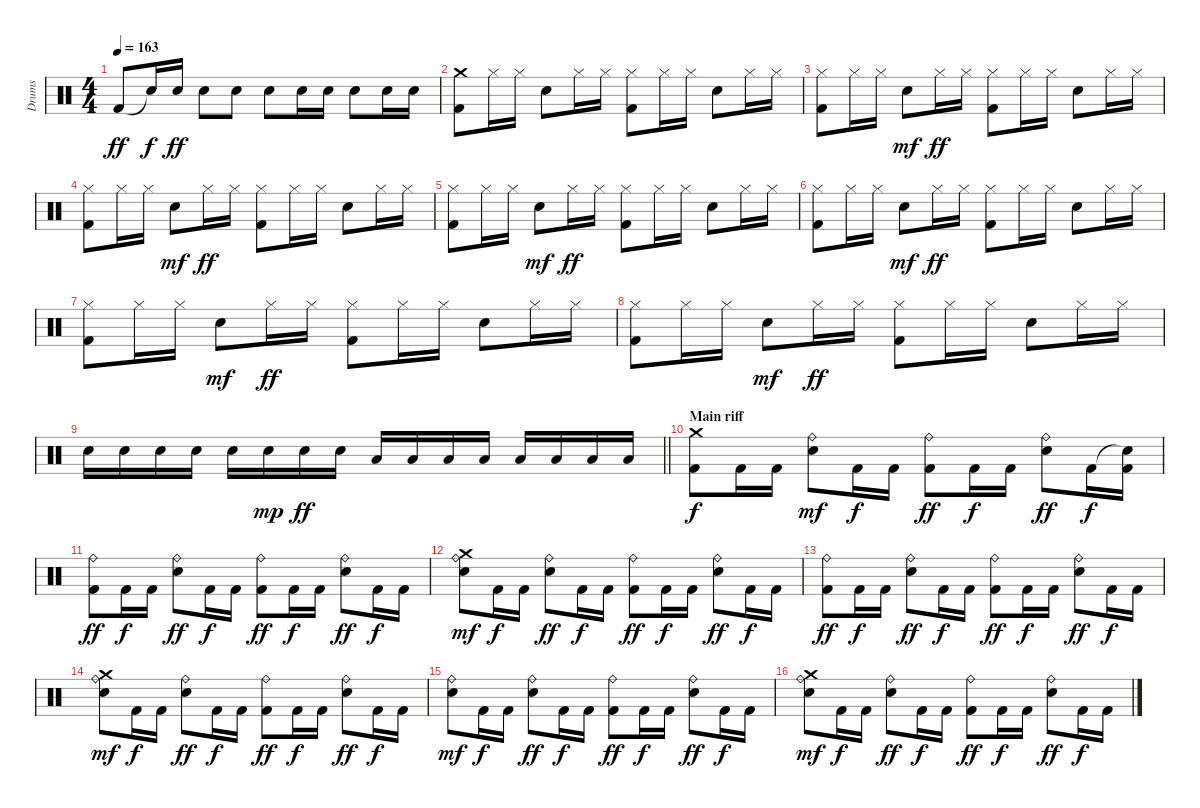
\track ("Drums" "Drums") {instrument percussion}
\staff {score}
\articulation defaults
\ts (4 4)
\tempo 163
\clef neutral
\ks c "Kick (hit) 2".8{dy ff} "Snare (hit)"{t}.16{dy f} "Electric Snare (hit)".16{dy ff} "Electric Snare (hit)".8 "Electric Snare (hit)".8 "Electric Snare (hit)".8 "Electric Snare (hit)".16 "Electric Snare (hit)".16 "Electric Snare (hit)".8 "Electric Snare (hit)".16 "Electric Snare (hit)".16
|
("Crash medium (hit)" "Kick (hit) 2").8 "Hi-Hat (closed)".16 "Hi-Hat (closed)".16 "Electric Snare (hit)".8 "Hi-Hat (closed)".16 "Hi-Hat (closed)".16 ("Hi-Hat (closed)" "Kick (hit) 2").8 "Hi-Hat (closed)".16 "Hi-Hat (closed)".16 "Electric Snare (hit)".8 "Hi-Hat (closed)".16 "Hi-Hat (closed)".16 |
("Hi-Hat (closed)" "Kick (hit) 2").8 "Hi-Hat (closed)".16 "Hi-Hat (closed)".16 "Electric Snare (hit)".8{dy mf} "Hi-Hat (closed)".16{dy ff} "Hi-Hat (closed)".16 ("Hi-Hat (closed)" "Kick (hit) 2").8 "Hi-Hat (closed)".16 "Hi-Hat (closed)".16 "Electric Snare (hit)".8 "Hi-Hat (closed)".16 "Hi-Hat (closed)".16 |
("Hi-Hat (closed)" "Kick (hit) 2").8 "Hi-Hat (closed)".16 "Hi-Hat (closed)".16 "Electric Snare (hit)".8{dy mf} "Hi-Hat (closed)".16{dy ff} "Hi-Hat (closed)".16 ("Hi-Hat (closed)" "Kick (hit) 2").8 "Hi-Hat (closed)".16 "Hi-Hat (closed)".16 "Electric Snare (hit)".8 "Hi-Hat (closed)".16 "Hi-Hat (closed)".16 |
("Hi-Hat (closed)" "Kick (hit) 2").8 "Hi-Hat (closed)".16 "Hi-Hat (closed)".16 "Electric Snare (hit)".8{dy mf} "Hi-Hat (closed)".16{dy ff} "Hi-Hat (closed)".16 ("Hi-Hat (closed)" "Kick (hit) 2").8 "Hi-Hat (closed)".16 "Hi-Hat (closed)".16 "Electric Snare (hit)".8 "Hi-Hat (closed)".16 "Hi-Hat (closed)".16 |
("Hi-Hat (closed)" "Kick (hit) 2").8 "Hi-Hat (closed)".16 "Hi-Hat (closed)".16 "Electric Snare (hit)".8{dy mf} "Hi-Hat (closed)".16{dy ff} "Hi-Hat (closed)".16 ("Hi-Hat (closed)" "Kick (hit) 2").8 "Hi-Hat (closed)".16 "Hi-Hat (closed)".16 "Electric Snare (hit)".8 "Hi-Hat (closed)".16 "Hi-Hat (closed)".16 |
("Hi-Hat (closed)" "Kick (hit) 2").8 "Hi-Hat (closed)".16 "Hi-Hat (closed)".16 "Electric Snare (hit)".8{dy mf} "Hi-Hat (closed)".16{dy ff} "Hi-Hat (closed)".16 ("Hi-Hat (closed)" "Kick (hit) 2").8 "Hi-Hat (closed)".16 "Hi-Hat (closed)".16 "Electric Snare (hit)".8 "Hi-Hat (closed)".16 "Hi-Hat (closed)".16 |
("Hi-Hat (closed)" "Kick (hit) 2").8 "Hi-Hat (closed)".16 "Hi-Hat (closed)".16 "Electric Snare (hit)".8{dy mf} "Hi-Hat (closed)".16{dy ff} "Hi-Hat (closed)".16 ("Hi-Hat (closed)" "Kick (hit) 2").8 "Hi-Hat (closed)".16 "Hi-Hat (closed)".16 "Electric Snare (hit)".8 "Hi-Hat (closed)".16 "Hi-Hat (closed)".16 |
\barLineRight lightlight "Electric Snare (hit)".16 "Electric Snare (hit)".16 "Electric Snare (hit)".16 "Electric Snare (hit)".16 "Electric Snare (hit)".16 "Electric Snare (hit)".16{dy mp} "Electric Snare (hit)".16{dy ff} "Electric Snare (hit)".16 "Low Tom (hit)".16 "Low Tom (hit)".16 "Low Tom (hit)".16 "Low Tom (hit)".16 "Low Floor Tom (hit)".16 "Low Floor Tom (hit)".16 "Low Floor Tom (hit)".16 "Low Floor Tom (hit)".16
|
\section ("" "Main riff")
("Crash medium (hit)" "Kick (hit) 2").8{dy f} "Kick (hit) 2".16 "Kick (hit) 2".16 ("Ride (bell)" "Electric Snare (hit)").8{dy mf} "Kick (hit) 2".16{dy f} "Kick (hit) 2".16 ("Ride (bell)" "Kick (hit) 2").8{dy ff} "Kick (hit) 2".16{dy f} "Kick (hit) 2".16 ("Ride (bell)" "Electric Snare (hit)").8{dy ff} "Kick (hit) 2".16{dy f} ("Snare (hit)"{t} "Kick (hit) 2").16 |
("Ride (bell)" "Kick (hit) 2").8{dy ff} "Kick (hit) 2".16{dy f} "Kick (hit) 2".16 ("Ride (bell)" "Electric Snare (hit)").8{dy ff} "Kick (hit) 2".16{dy f} "Kick (hit) 2".16 ("Ride (bell)" "Kick (hit) 2").8{dy ff} "Kick (hit) 2".16{dy f} "Kick (hit) 2".16 ("Ride (bell)" "Electric Snare (hit)").8{dy ff} "Kick (hit) 2".16{dy f} "Kick (hit) 2".16 |
("Crash medium (hit)" "Ride (bell)" "Electric Snare (hit)").8{dy mf} "Kick (hit) 2".16{dy f} "Kick (hit) 2".16 ("Ride (bell)" "Electric Snare (hit)").8{dy ff} "Kick (hit) 2".16{dy f} "Kick (hit) 2".16 ("Ride (bell)" "Kick (hit) 2").8{dy ff} "Kick (hit) 2".16{dy f} "Kick (hit) 2".16 ("Ride (bell)" "Electric Snare (hit)").8{dy ff} "Kick (hit) 2".16{dy f} "Kick (hit) 2".16 |
("Ride (bell)" "Kick (hit) 2").8{dy ff} "Kick (hit) 2".16{dy f} "Kick (hit) 2".16 ("Ride (bell)" "Electric Snare (hit)").8{dy ff} "Kick (hit) 2".16{dy f} "Kick (hit) 2".16 ("Ride (bell)" "Kick (hit) 2").8{dy ff} "Kick (hit) 2".16{dy f} "Kick (hit) 2".16 ("Ride (bell)" "Electric Snare (hit)").8{dy ff} "Kick (hit) 2".16{dy f} "Kick (hit) 2".16 |
("Crash medium (hit)" "Ride (bell)" "Electric Snare (hit)").8{dy mf} "Kick (hit) 2".16{dy f} "Kick (hit) 2".16 ("Ride (bell)" "Electric Snare (hit)").8{dy ff} "Kick (hit) 2".16{dy f} "Kick (hit) 2".16 ("Ride (bell)" "Kick (hit) 2").8{dy ff} "Kick (hit) 2".16{dy f} "Kick (hit) 2".16 ("Ride (bell)" "Electric Snare (hit)").8{dy ff} "Kick (hit) 2".16{dy f} "Kick (hit) 2".16 |
("Ride (bell)" "Electric Snare (hit)").8{dy mf} "Kick (hit) 2".16{dy f} "Kick (hit) 2".16 ("Ride (bell)" "Electric Snare (hit)").8{dy ff} "Kick (hit) 2".16{dy f} "Kick (hit) 2".16 ("Ride (bell)" "Kick (hit) 2").8{dy ff} "Kick (hit) 2".16{dy f} "Kick (hit) 2".16 ("Ride (bell)" "Electric Snare (hit)").8{dy ff} "Kick (hit) 2".16{dy f} "Kick (hit) 2".16 |
("Crash medium (hit)" "Ride (bell)" "Electric Snare (hit)").8{dy mf} "Kick (hit) 2".16{dy f} "Kick (hit) 2".16 ("Ride (bell)" "Electric Snare (hit)").8{dy ff} "Kick (hit) 2".16{dy f} "Kick (hit) 2".16 ("Ride (bell)" "Kick (hit) 2").8{dy ff} "Kick (hit) 2".16{dy f} "Kick (hit) 2".16 ("Ride (bell)" "Electric Snare (hit)").8{dy ff} "Kick (hit) 2".16{dy f} "Kick (hit) 2".16
